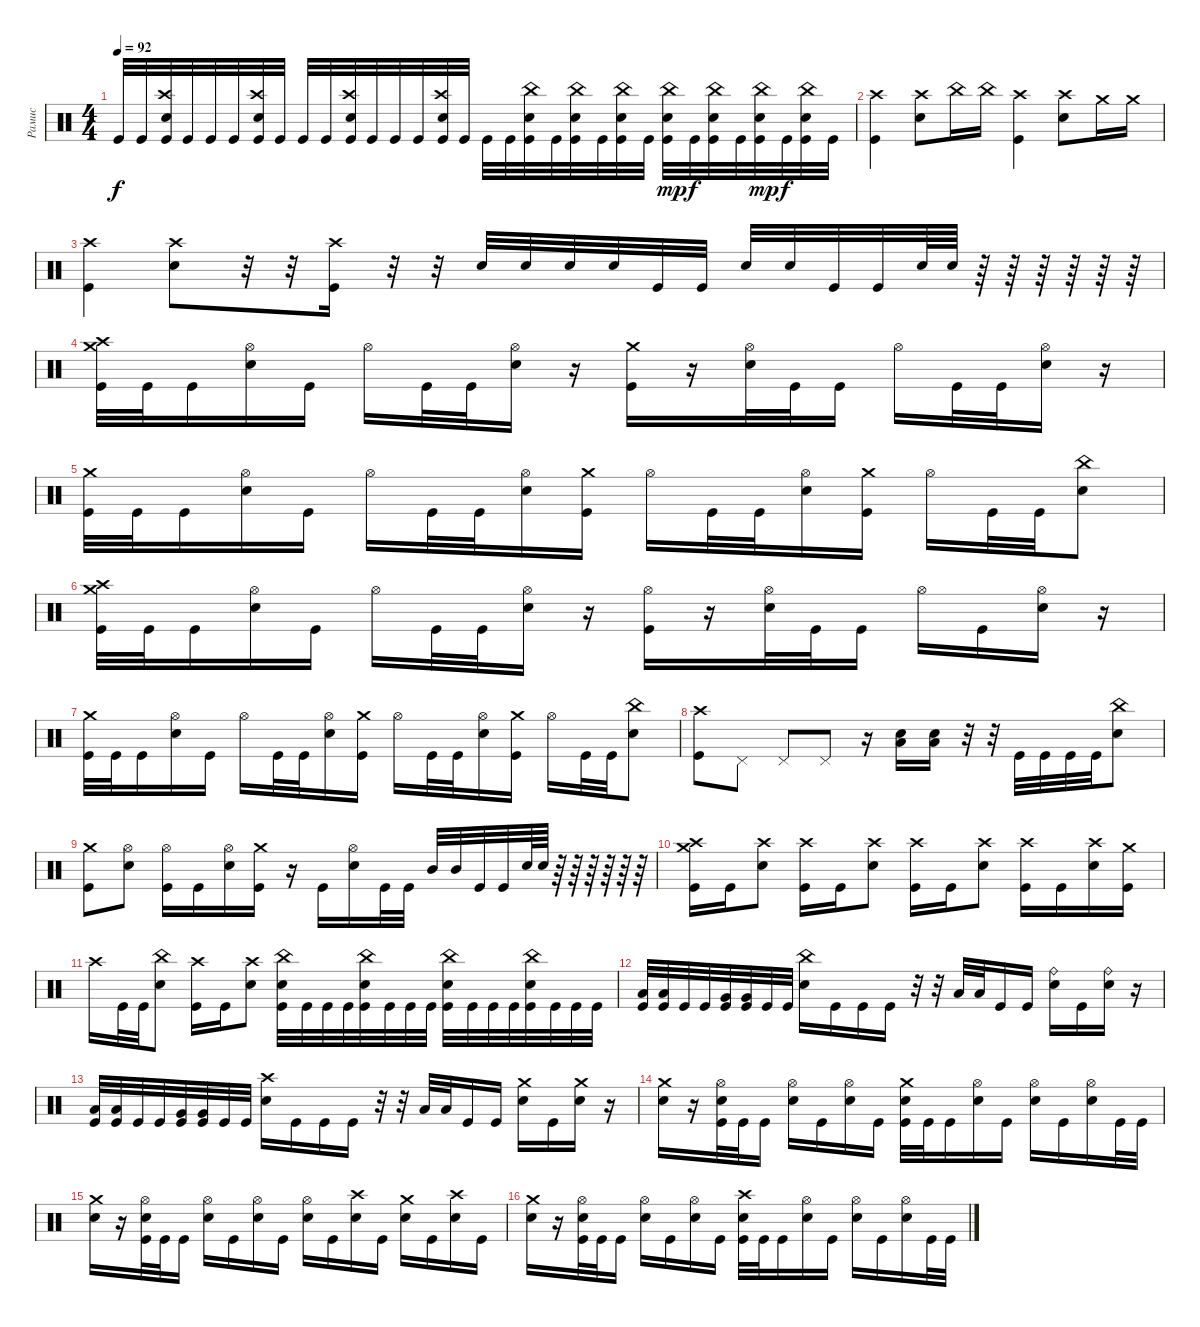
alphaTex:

\track ("Рамис" "Рамис") {instrument percussion}
\staff {score}
\articulation defaults
\ts (4 4)
\tempo 92
\clef neutral
\ks c "Kick (hit)".32{dy f} "Kick (hit)".32
("Crash high (hit)" "Electric Snare (hit)" "Kick (hit)").32 "Kick (hit)".32 "Kick (hit)".32 "Kick (hit)".32 ("Crash high (hit)" "Electric Snare (hit)" "Kick (hit)").32 "Kick (hit)".32 "Kick (hit)".32 "Kick (hit)".32 ("Crash high (hit)" "Electric Snare (hit)" "Kick (hit)").32 "Kick (hit)".32 "Kick (hit)".32 "Kick (hit)".32 ("Crash high (hit)" "Electric Snare (hit)" "Kick (hit)").32 "Kick (hit)".32 "Kick (hit)".32 "Kick (hit)".32 ("China (hit)" "Electric Snare (hit)" "Kick (hit)").32 "Kick (hit)".32 ("China (hit)" "Electric Snare (hit)" "Kick (hit)").32 "Kick (hit)".32 ("China (hit)" "Electric Snare (hit)" "Kick (hit)").32 "Kick (hit)".32 ("China (hit)" "Electric Snare (hit)" "Kick (hit)").32{dy mp} "Kick (hit)".32{dy f} ("China (hit)" "Electric Snare (hit)" "Kick (hit)").32 "Kick (hit)".32 ("China (hit)" "Electric Snare (hit)" "Kick (hit)").32{dy mp} "Kick (hit)".32{dy f} ("China (hit)" "Electric Snare (hit)" "Kick (hit)").32 "Kick (hit)".32 |
("Kick (hit)" "Crash high (hit)").4 ("Electric Snare (hit)" "Crash high (hit)").8 "China (hit)".16 "China (hit)".16 ("Kick (hit)" "Crash high (hit)").4 ("Electric Snare (hit)" "Crash high (hit)").8 "Crash medium (hit)".16 "Crash medium (hit)".16 |
("Kick (hit)" "Crash high (hit)").4 ("Electric Snare (hit)" "Crash high (hit)").8 r.32 r.32 ("Kick (hit)" "Crash high (hit)").16 r.32 r.32 "Electric Snare (hit)".32 "Electric Snare (hit)".32 "Electric Snare (hit)".32 "Electric Snare (hit)".32 "Kick (hit)".32 "Kick (hit)".32 "Electric Snare (hit)".32 "Electric Snare (hit)".32 "Kick (hit)".32 "Kick (hit)".32 "Electric Snare (hit)".64 "Electric Snare (hit)".64 r.64 r.64 r.64 r.64 r.64 r.64 |
("Crash high (hit)" "Crash medium (hit)" "Kick (hit)").32 "Kick (hit)".32 "Kick (hit)".16 ("Hi-Hat (open)" "Electric Snare (hit)").16 "Kick (hit)".16 "Hi-Hat (open)".16 "Kick (hit)".32 "Kick (hit)".32 ("Hi-Hat (open)" "Electric Snare (hit)").16 r.16 ("Crash medium (hit)" "Kick (hit)").16 r.16 ("Hi-Hat (open)" "Electric Snare (hit)").32 "Kick (hit)".32 "Kick (hit)".16 "Hi-Hat (open)".16 "Kick (hit)".32 "Kick (hit)".32 ("Hi-Hat (open)" "Electric Snare (hit)").16 r.16 |
("Crash medium (hit)" "Kick (hit)").32 "Kick (hit)".32 "Kick (hit)".16 ("Hi-Hat (open)" "Electric Snare (hit)").16 "Kick (hit)".16 "Hi-Hat (open)".16 "Kick (hit)".32 "Kick (hit)".32 ("Hi-Hat (open)" "Electric Snare (hit)").16 ("Crash medium (hit)" "Kick (hit)").16 "Hi-Hat (open)".16 "Kick (hit)".32 "Kick (hit)".32 ("Hi-Hat (open)" "Electric Snare (hit)").16 ("Crash medium (hit)" "Kick (hit)").16 "Hi-Hat (open)".16 "Kick (hit)".32 "Kick (hit)".32 ("China (hit)" "Electric Snare (hit)").8 |
("Crash high (hit)" "Crash medium (hit)" "Kick (hit)").32 "Kick (hit)".32 "Kick (hit)".16 ("Hi-Hat (open)" "Electric Snare (hit)").16 "Kick (hit)".16 "Hi-Hat (open)".16 "Kick (hit)".32 "Kick (hit)".32 ("Hi-Hat (open)" "Electric Snare (hit)").16 r.16 ("Hi-Hat (open)" "Kick (hit)").16 r.16 ("Hi-Hat (open)" "Electric Snare (hit)").32 "Kick (hit)".32 "Kick (hit)".16 "Hi-Hat (open)".16 "Kick (hit)".16 ("Hi-Hat (open)" "Electric Snare (hit)").16 r.16 |
("Crash medium (hit)" "Kick (hit)").32 "Kick (hit)".32 "Kick (hit)".16 ("Hi-Hat (open)" "Electric Snare (hit)").16 "Kick (hit)".16 "Hi-Hat (open)".16 "Kick (hit)".32 "Kick (hit)".32 ("Hi-Hat (open)" "Electric Snare (hit)").16 ("Crash medium (hit)" "Kick (hit)").16 "Hi-Hat (open)".16 "Kick (hit)".32 "Kick (hit)".32 ("Hi-Hat (open)" "Electric Snare (hit)").16 ("Crash medium (hit)" "Kick (hit)").16 "Hi-Hat (open)".16 "Kick (hit)".32 "Kick (hit)".32 ("China (hit)" "Electric Snare (hit)").8 |
("Crash high (hit)" "Kick (hit)").8 "Pedal Hi-Hat (hit)".8 "Pedal Hi-Hat (hit)".8 "Pedal Hi-Hat (hit)".8 r.16 ("Electric Snare (hit)" "Low Floor Tom (hit)").16 ("Electric Snare (hit)" "Low Floor Tom (hit)").16 r.32 r.32 "Kick (hit)".32 "Kick (hit)".32 "Kick (hit)".32 "Kick (hit)".32 ("China (hit)" "Electric Snare (hit)").8 |
("Crash medium (hit)" "Kick (hit)").8 ("Hi-Hat (open)" "Electric Snare (hit)").8 ("Hi-Hat (open)" "Kick (hit)").16 "Kick (hit)".16 ("Hi-Hat (open)" "Electric Snare (hit)").16 ("Crash medium (hit)" "Kick (hit)").16 r.16 "Kick (hit)".16 ("Hi-Hat (open)" "Electric Snare (hit)").16 "Kick (hit)".32 "Kick (hit)".32 "Mid Tom (hit)".32 "Mid Tom (hit)".32 "Kick (hit)".32 "Kick (hit)".32 "Electric Snare (hit)".64 "Electric Snare (hit)".64 r.64 r.64 r.64 r.64 r.64 r.64 |
("Crash high (hit)" "Crash medium (hit)" "Kick (hit)").16 "Kick (hit)".16 ("Crash high (hit)" "Electric Snare (hit)").8 ("Crash high (hit)" "Kick (hit)").16 "Kick (hit)".16 ("Crash high (hit)" "Electric Snare (hit)").8 ("Crash high (hit)" "Kick (hit)").16 "Kick (hit)".16 ("Crash high (hit)" "Electric Snare (hit)").8 ("Crash high (hit)" "Kick (hit)").16 "Kick (hit)".16 ("Crash high (hit)" "Electric Snare (hit)").16 ("Crash medium (hit)" "Kick (hit)").16 |
"Crash high (hit)".16 "Kick (hit)".32 "Kick (hit)".32 ("China (hit)" "Electric Snare (hit)").8 ("Crash high (hit)" "Kick (hit)").16 "Kick (hit)".16 ("Crash high (hit)" "Electric Snare (hit)").8 ("China (hit)" "Electric Snare (hit)" "Kick (hit)").32 "Kick (hit)".32 "Kick (hit)".32 "Kick (hit)".32 ("China (hit)" "Electric Snare (hit)" "Kick (hit)").32 "Kick (hit)".32 "Kick (hit)".32 "Kick (hit)".32 ("China (hit)" "Electric Snare (hit)" "Kick (hit)").32 "Kick (hit)".32 "Kick (hit)".32 "Kick (hit)".32 ("China (hit)" "Electric Snare (hit)" "Kick (hit)").32 "Kick (hit)".32 "Kick (hit)".32 "Kick (hit)".32 |
("Low Tom (hit)" "Kick (hit)").32 ("Low Tom (hit)" "Kick (hit)").32 "Kick (hit)".32 "Kick (hit)".32 ("Very Low Tom (hit)" "Kick (hit)").32 ("Very Low Tom (hit)" "Kick (hit)").32 "Kick (hit)".32 "Kick (hit)".32 ("Electric Snare (hit)" "China (hit)").16 "Kick (hit)".16 "Kick (hit)".16 "Kick (hit)".16 r.32 r.32 "Low Tom (hit)".32 "Low Tom (hit)".32 "Kick (hit)".16 "Kick (hit)".16 ("Electric Snare (hit)" "Ride (bell)").16 "Kick (hit)".16 ("Electric Snare (hit)" "Ride (bell)").16 r.16 |
("Low Tom (hit)" "Kick (hit)").32 ("Low Tom (hit)" "Kick (hit)").32 "Kick (hit)".32 "Kick (hit)".32 ("Very Low Tom (hit)" "Kick (hit)").32 ("Very Low Tom (hit)" "Kick (hit)").32 "Kick (hit)".32 "Kick (hit)".32 ("Electric Snare (hit)" "Crash high (hit)").16 "Kick (hit)".16 "Kick (hit)".16 "Kick (hit)".16 r.32 r.32 "Low Tom (hit)".32 "Low Tom (hit)".32 "Kick (hit)".16 "Kick (hit)".16 ("Electric Snare (hit)" "Crash medium (hit)").16 "Kick (hit)".16 ("Electric Snare (hit)" "Crash medium (hit)").16 r.16 |
("Crash medium (hit)" "Electric Snare (hit)").16 r.16 ("Hi-Hat (open)" "Electric Snare (hit)" "Kick (hit)").32 "Kick (hit)".32 "Kick (hit)".16 ("Hi-Hat (open)" "Electric Snare (hit)").16 "Kick (hit)".16 ("Hi-Hat (open)" "Electric Snare (hit)").16 "Kick (hit)".16 ("Crash medium (hit)" "Electric Snare (hit)" "Kick (hit)").32 "Kick (hit)".32 "Kick (hit)".16 ("Hi-Hat (open)" "Electric Snare (hit)").16 "Kick (hit)".16 ("Hi-Hat (open)" "Electric Snare (hit)").16 "Kick (hit)".16 ("Hi-Hat (open)" "Electric Snare (hit)").16 "Kick (hit)".32 "Kick (hit)".32 |
("Crash medium (hit)" "Electric Snare (hit)").16 r.16 ("Hi-Hat (open)" "Electric Snare (hit)" "Kick (hit)").32 "Kick (hit)".32 "Kick (hit)".16 ("Hi-Hat (open)" "Electric Snare (hit)").16 "Kick (hit)".16 ("Hi-Hat (open)" "Electric Snare (hit)").16 "Kick (hit)".16 ("Hi-Hat (open)" "Electric Snare (hit)").16 "Kick (hit)".16 ("Crash high (hit)" "Electric Snare (hit)").16 "Kick (hit)".16 ("Crash medium (hit)" "Electric Snare (hit)").16 "Kick (hit)".16 ("Crash high (hit)" "Electric Snare (hit)").16 "Kick (hit)".16 |
("Crash medium (hit)" "Electric Snare (hit)").16 r.16 ("Hi-Hat (open)" "Electric Snare (hit)" "Kick (hit)").32 "Kick (hit)".32 "Kick (hit)".16 ("Hi-Hat (open)" "Electric Snare (hit)").16 "Kick (hit)".16 ("Hi-Hat (open)" "Electric Snare (hit)").16 "Kick (hit)".16 ("Crash high (hit)" "Electric Snare (hit)" "Kick (hit)").32 "Kick (hit)".32 "Kick (hit)".16 ("Hi-Hat (open)" "Electric Snare (hit)").16 "Kick (hit)".16 ("Hi-Hat (open)" "Electric Snare (hit)").16 "Kick (hit)".16 ("Hi-Hat (open)" "Electric Snare (hit)").16 "Kick (hit)".32 "Kick (hit)".32
